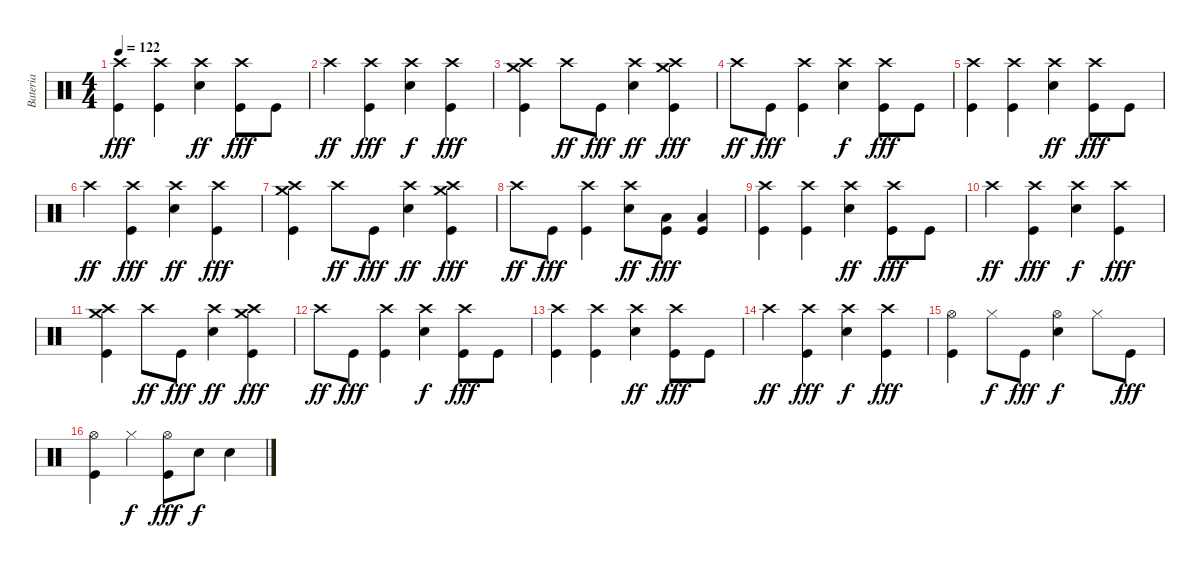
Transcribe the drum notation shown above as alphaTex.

\track ("Bateria" "Bateria") {instrument percussion}
\staff {score}
\articulation defaults
\ts (4 4)
\tempo 122
\clef neutral
\ks c
("Crash high (hit)" "Kick (hit)").4{dy fff} ("Crash high (hit)" "Kick (hit)").4 ("Crash high (hit)" "Snare (hit) 2").4{dy ff} ("Crash high (hit)" "Kick (hit)").8{dy fff} "Kick (hit)".8 |
"Crash high (hit)".4{dy ff} ("Crash high (hit)" "Kick (hit)").4{dy fff} ("Crash high (hit)" "Snare (hit) 2").4{dy f} ("Crash high (hit)" "Kick (hit)").4{dy fff} |
("Crash high (hit)" "Crash medium (hit)" "Kick (hit)").4 "Crash high (hit)".8{dy ff} "Kick (hit)".8{dy fff} ("Crash high (hit)" "Snare (hit) 2").4{dy ff} ("Crash high (hit)" "Crash medium (hit)" "Kick (hit)").4{dy fff} |
"Crash high (hit)".8{dy ff} "Kick (hit)".8{dy fff} ("Crash high (hit)" "Kick (hit)").4 ("Crash high (hit)" "Snare (hit) 2").4{dy f} ("Crash high (hit)" "Kick (hit)").8{dy fff} "Kick (hit)".8 |
("Crash high (hit)" "Kick (hit)").4 ("Crash high (hit)" "Kick (hit)").4 ("Crash high (hit)" "Snare (hit) 2").4{dy ff} ("Crash high (hit)" "Kick (hit)").8{dy fff} "Kick (hit)".8 |
"Crash high (hit)".4{dy ff} ("Crash high (hit)" "Kick (hit)").4{dy fff} ("Crash high (hit)" "Snare (hit) 2").4{dy ff} ("Crash high (hit)" "Kick (hit)").4{dy fff} |
("Crash high (hit)" "Crash medium (hit)" "Kick (hit)").4 "Crash high (hit)".8{dy ff} "Kick (hit)".8{dy fff} ("Crash high (hit)" "Snare (hit) 2").4{dy ff} ("Crash high (hit)" "Crash medium (hit)" "Kick (hit)").4{dy fff} |
"Crash high (hit)".8{dy ff} "Kick (hit)".8{dy fff} ("Crash high (hit)" "Kick (hit)").4 ("Crash high (hit)" "Snare (hit) 2").8{dy ff} ("Low Tom (hit)" "Kick (hit)").8{dy fff} ("Low Tom (hit)" "Kick (hit)").4 |
("Crash high (hit)" "Kick (hit)").4 ("Crash high (hit)" "Kick (hit)").4 ("Crash high (hit)" "Snare (hit) 2").4{dy ff} ("Crash high (hit)" "Kick (hit)").8{dy fff} "Kick (hit)".8 |
"Crash high (hit)".4{dy ff} ("Crash high (hit)" "Kick (hit)").4{dy fff} ("Crash high (hit)" "Snare (hit) 2").4{dy f} ("Crash high (hit)" "Kick (hit)").4{dy fff} |
("Crash high (hit)" "Crash medium (hit)" "Kick (hit)").4 "Crash high (hit)".8{dy ff} "Kick (hit)".8{dy fff} ("Crash high (hit)" "Snare (hit) 2").4{dy ff} ("Crash high (hit)" "Crash medium (hit)" "Kick (hit)").4{dy fff} |
"Crash high (hit)".8{dy ff} "Kick (hit)".8{dy fff} ("Crash high (hit)" "Kick (hit)").4 ("Crash high (hit)" "Snare (hit) 2").4{dy f} ("Crash high (hit)" "Kick (hit)").8{dy fff} "Kick (hit)".8 |
("Crash high (hit)" "Kick (hit)").4 ("Crash high (hit)" "Kick (hit)").4 ("Crash high (hit)" "Snare (hit) 2").4{dy ff} ("Crash high (hit)" "Kick (hit)").8{dy fff} "Kick (hit)".8 |
"Crash high (hit)".4{dy ff} ("Crash high (hit)" "Kick (hit)").4{dy fff} ("Crash high (hit)" "Snare (hit) 2").4{dy f} ("Crash high (hit)" "Kick (hit)").4{dy fff} |
("Hi-Hat (open)" "Kick (hit)").4 "Hi-Hat (closed)".8{dy f} "Kick (hit)".8{dy fff} ("Hi-Hat (open)" "Snare (hit) 2").4{dy f} "Hi-Hat (closed)".8 "Kick (hit)".8{dy fff} |
("Hi-Hat (open)" "Kick (hit)").4 "Hi-Hat (closed)".4{dy f} ("Hi-Hat (open)" "Kick (hit)").8{dy fff} "Snare (hit) 2".8{dy f} "Snare (hit) 2".4
